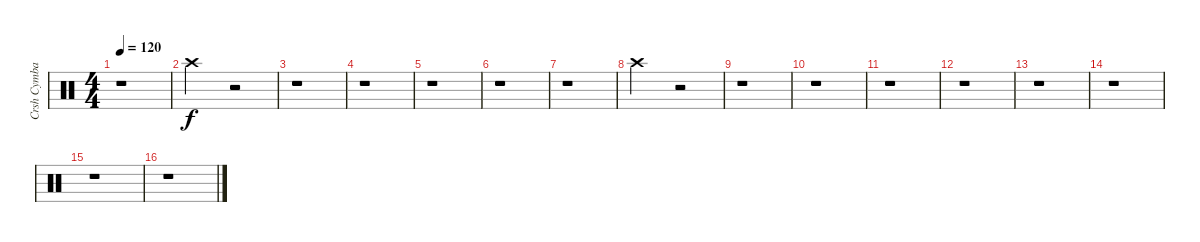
\track ("Crsh Cymbal         " "Crsh Cymba") {instrument percussion}
\staff {score}
\articulation defaults
\ts (4 4)
\tempo 120
\clef neutral
\ks c
r.1{dy f} |
"Crash high (hit)".2 r.2 |
r.1 |
r.1 |
r.1 |
r.1 |
r.1 |
"Crash high (hit)".2 r.2 |
r.1 |
r.1 |
r.1 |
r.1 |
r.1 |
r.1 |
r.1 |
r.1
